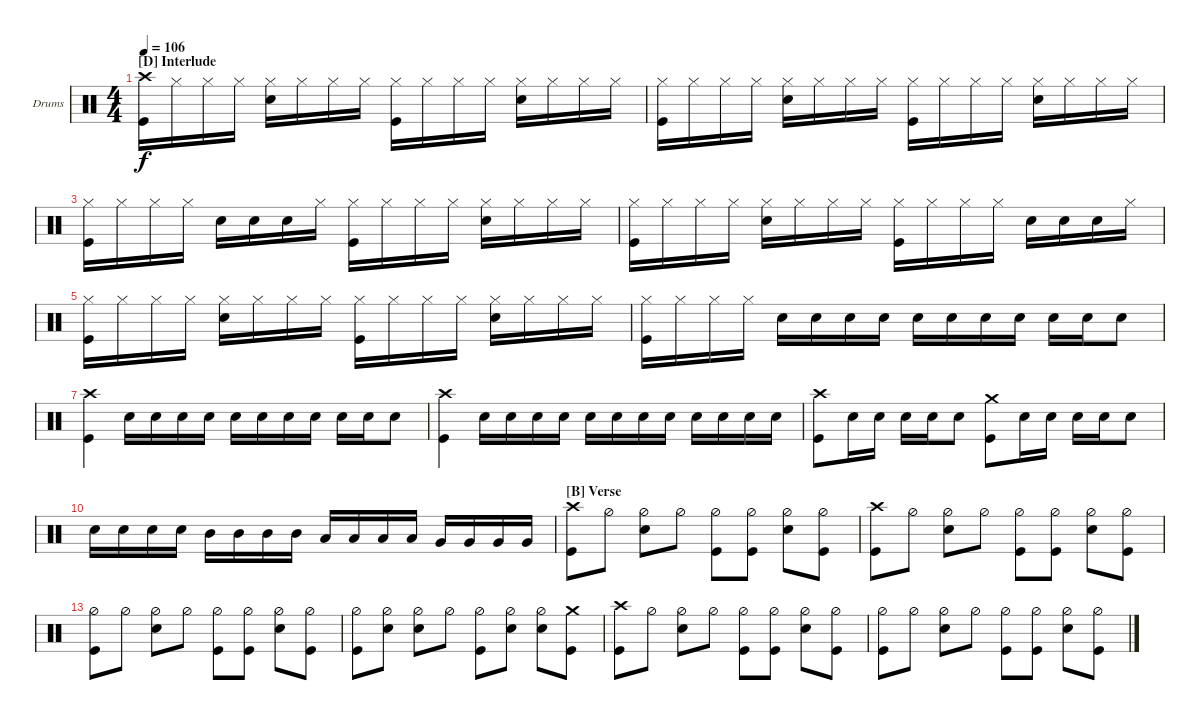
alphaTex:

\bracketExtendMode nobrackets
\firstSystemTrackNameOrientation horizontal
\otherSystemsTrackNameOrientation horizontal
\defaultBarNumberDisplay FirstOfSystem
\track ("Herman Rarebell" "Drums") {instrument percussion}
\staff {score}
\articulation defaults
\ts (4 4)
\section ("D" "Interlude")
\tempo 106
\clef neutral
\scale
0.477082
\ks c
("Kick (hit)" "Crash high (hit)").16{dy f} "Hi-Hat (closed)".16 "Hi-Hat (closed)".16 "Hi-Hat (closed)".16 ("Snare (hit) 2" "Hi-Hat (closed)").16 "Hi-Hat (closed)".16 "Hi-Hat (closed)".16 "Hi-Hat (closed)".16 ("Kick (hit)" "Hi-Hat (closed)").16 "Hi-Hat (closed)".16 "Hi-Hat (closed)".16 "Hi-Hat (closed)".16 ("Snare (hit) 2" "Hi-Hat (closed)").16 "Hi-Hat (closed)".16 "Hi-Hat (closed)".16 "Hi-Hat (closed)".16 |
("Kick (hit)" "Hi-Hat (closed)").16 "Hi-Hat (closed)".16 "Hi-Hat (closed)".16 "Hi-Hat (closed)".16 ("Snare (hit) 2" "Hi-Hat (closed)").16 "Hi-Hat (closed)".16 "Hi-Hat (closed)".16 "Hi-Hat (closed)".16 ("Kick (hit)" "Hi-Hat (closed)").16 "Hi-Hat (closed)".16 "Hi-Hat (closed)".16 "Hi-Hat (closed)".16 ("Snare (hit) 2" "Hi-Hat (closed)").16 "Hi-Hat (closed)".16 "Hi-Hat (closed)".16 "Hi-Hat (closed)".16 |
("Kick (hit)" "Hi-Hat (closed)").16 "Hi-Hat (closed)".16 "Hi-Hat (closed)".16 "Hi-Hat (closed)".16 "Snare (hit) 2".16 "Snare (hit) 2".16 "Snare (hit) 2".16 "Hi-Hat (closed)".16 ("Kick (hit)" "Hi-Hat (closed)").16 "Hi-Hat (closed)".16 "Hi-Hat (closed)".16 "Hi-Hat (closed)".16 ("Snare (hit) 2" "Hi-Hat (closed)").16 "Hi-Hat (closed)".16 "Hi-Hat (closed)".16 "Hi-Hat (closed)".16 |
\scale
0.505157 ("Kick (hit)" "Hi-Hat (closed)").16 "Hi-Hat (closed)".16 "Hi-Hat (closed)".16 "Hi-Hat (closed)".16 ("Snare (hit) 2" "Hi-Hat (closed)").16 "Hi-Hat (closed)".16 "Hi-Hat (closed)".16 "Hi-Hat (closed)".16 ("Kick (hit)" "Hi-Hat (closed)").16 "Hi-Hat (closed)".16 "Hi-Hat (closed)".16 "Hi-Hat (closed)".16 "Snare (hit) 2".16 "Snare (hit) 2".16 "Snare (hit) 2".16 "Hi-Hat (closed)".16 |
\scale
0.495007 ("Kick (hit)" "Hi-Hat (closed)").16 "Hi-Hat (closed)".16 "Hi-Hat (closed)".16 "Hi-Hat (closed)".16 ("Snare (hit) 2" "Hi-Hat (closed)").16 "Hi-Hat (closed)".16 "Hi-Hat (closed)".16 "Hi-Hat (closed)".16 ("Kick (hit)" "Hi-Hat (closed)").16 "Hi-Hat (closed)".16 "Hi-Hat (closed)".16 "Hi-Hat (closed)".16 ("Snare (hit) 2" "Hi-Hat (closed)").16 "Hi-Hat (closed)".16 "Hi-Hat (closed)".16 "Hi-Hat (closed)".16 |
("Kick (hit)" "Hi-Hat (closed)").16 "Hi-Hat (closed)".16 "Hi-Hat (closed)".16 "Hi-Hat (closed)".16 "Snare (hit) 2".16 "Snare (hit) 2".16 "Snare (hit) 2".16 "Snare (hit) 2".16 "Snare (hit) 2".16 "Snare (hit) 2".16 "Snare (hit) 2".16 "Snare (hit) 2".16 "Snare (hit) 2".16 "Snare (hit) 2".16 "Snare (hit) 2".8 |
("Kick (hit)" "Crash high (hit)").4 "Snare (hit) 2".16 "Snare (hit) 2".16 "Snare (hit) 2".16 "Snare (hit) 2".16 "Snare (hit) 2".16 "Snare (hit) 2".16 "Snare (hit) 2".16 "Snare (hit) 2".16 "Snare (hit) 2".16 "Snare (hit) 2".16 "Snare (hit) 2".8 |
("Kick (hit)" "Crash high (hit)").4 "Snare (hit) 2".16 "Snare (hit) 2".16 "Snare (hit) 2".16 "Snare (hit) 2".16 "Snare (hit) 2".16 "Snare (hit) 2".16 "Snare (hit) 2".16 "Snare (hit) 2".16 "Snare (hit) 2".16 "Snare (hit) 2".16 "Snare (hit) 2".16 "Snare (hit) 2".16 |
("Kick (hit)" "Crash high (hit)").8 "Snare (hit) 2".16 "Snare (hit) 2".16 "Snare (hit) 2".16 "Snare (hit) 2".16 "Snare (hit) 2".8 ("Kick (hit)" "Crash medium (hit)").8 "Snare (hit) 2".16 "Snare (hit) 2".16 "Snare (hit) 2".16 "Snare (hit) 2".16 "Snare (hit) 2".8 |
\scale
0.498708 "Snare (hit) 2".16 "Snare (hit) 2".16 "Snare (hit) 2".16 "Snare (hit) 2".16 "Mid Tom (hit)".16 "Mid Tom (hit)".16 "Mid Tom (hit)".16 "Mid Tom (hit)".16 "Low Tom (hit)".16 "Low Tom (hit)".16 "Low Tom (hit)".16 "Low Tom (hit)".16 "Very Low Tom (hit)".16 "Very Low Tom (hit)".16 "Very Low Tom (hit)".16 "Very Low Tom (hit)".16 |
\section ("B" "Verse")
\scale
0.501243 ("Kick (hit)" "Crash high (hit)").8 "Hi-Hat (half)".8 ("Snare (hit) 2" "Hi-Hat (half)").8 "Hi-Hat (half)".8 ("Kick (hit)" "Hi-Hat (half)").8 ("Hi-Hat (half)" "Kick (hit)").8 ("Snare (hit) 2" "Hi-Hat (half)").8 ("Hi-Hat (half)" "Kick (hit)").8 |
("Kick (hit)" "Crash high (hit)").8 "Hi-Hat (half)".8 ("Snare (hit) 2" "Hi-Hat (half)").8 "Hi-Hat (half)".8 ("Kick (hit)" "Hi-Hat (half)").8 ("Hi-Hat (half)" "Kick (hit)").8 ("Snare (hit) 2" "Hi-Hat (half)").8 ("Hi-Hat (half)" "Kick (hit)").8 |
("Kick (hit)" "Hi-Hat (half)").8 "Hi-Hat (half)".8 ("Snare (hit) 2" "Hi-Hat (half)").8 "Hi-Hat (half)".8 ("Kick (hit)" "Hi-Hat (half)").8 ("Hi-Hat (half)" "Kick (hit)").8 ("Snare (hit) 2" "Hi-Hat (half)").8 ("Hi-Hat (half)" "Kick (hit)").8 |
("Kick (hit)" "Hi-Hat (half)").8 ("Hi-Hat (half)" "Snare (hit) 2").8 ("Snare (hit) 2" "Hi-Hat (half)").8 "Hi-Hat (half)".8 ("Kick (hit)" "Hi-Hat (half)").8 ("Hi-Hat (half)" "Snare (hit) 2").8 ("Snare (hit) 2" "Hi-Hat (half)").8 ("Kick (hit)" "Crash medium (hit)").8 |
("Kick (hit)" "Crash high (hit)").8 "Hi-Hat (half)".8 ("Snare (hit) 2" "Hi-Hat (half)").8 "Hi-Hat (half)".8 ("Kick (hit)" "Hi-Hat (half)").8 ("Hi-Hat (half)" "Kick (hit)").8 ("Snare (hit) 2" "Hi-Hat (half)").8 ("Hi-Hat (half)" "Kick (hit)").8 |
("Kick (hit)" "Hi-Hat (half)").8 "Hi-Hat (half)".8 ("Snare (hit) 2" "Hi-Hat (half)").8 "Hi-Hat (half)".8 ("Kick (hit)" "Hi-Hat (half)").8 ("Hi-Hat (half)" "Kick (hit)").8 ("Snare (hit) 2" "Hi-Hat (half)").8 ("Hi-Hat (half)" "Kick (hit)").8
